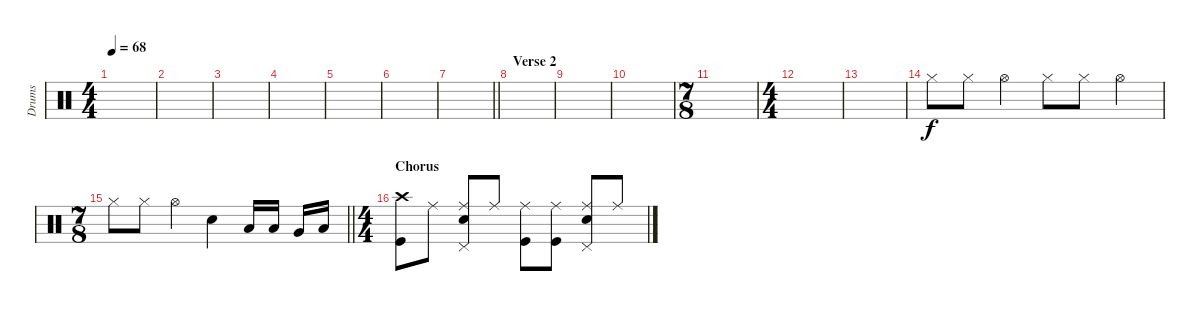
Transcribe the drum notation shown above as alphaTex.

\track ("Drums" "Drums") {instrument percussion}
\staff {score}
\articulation defaults
\ts (4 4)
\tempo 68
\clef neutral
\ks c
|
|
|
|
|
|
\barLineRight lightlight
|
\section ("" "Verse 2")
|
|
|
\ts (7 8)
|
\ts (4 4)
|
|
"Hi-Hat (closed)".8 "Hi-Hat (closed)".8 "Hi-Hat (open)".4 "Hi-Hat (closed)".8 "Hi-Hat (closed)".8 "Hi-Hat (open)".4 |
\ts (7 8)
\barLineRight lightlight "Hi-Hat (closed)".8 "Hi-Hat (closed)".8 "Hi-Hat (open)".4 "Snare (hit) 2".4 "Low Tom (hit)".16 "Low Tom (hit)".16 "Very Low Tom (hit)".16 "Low Floor Tom (hit)".16
|
\ts (4 4)
\section ("" "Chorus")
("Crash high (hit)" "Kick (hit)").8 "Ride (middle)".8 ("Ride (middle)" "Snare (hit) 2" "Pedal Hi-Hat (hit)").8 "Ride (middle)".8 ("Ride (middle)" "Kick (hit)").8 ("Ride (middle)" "Kick (hit)").8 ("Ride (middle)" "Snare (hit) 2" "Pedal Hi-Hat (hit)").8 "Ride (middle)".8
